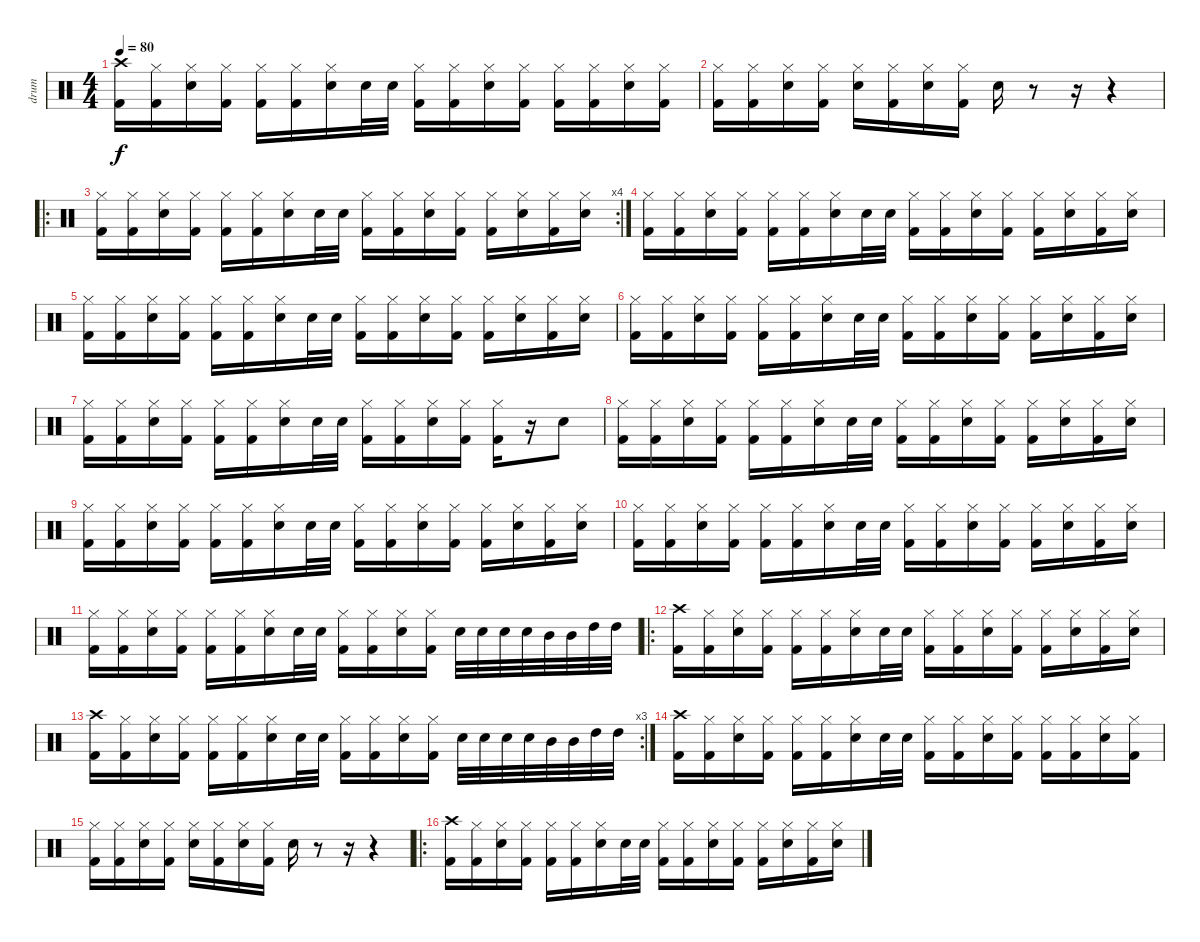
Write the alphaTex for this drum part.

\track ("drum" "drum") {instrument percussion}
\staff {score}
\articulation defaults
\ts (4 4)
\tempo 80
\clef neutral
\ks c
("Crash high (hit)" "Kick (hit) 2").16{dy f} ("Hi-Hat (closed)" "Kick (hit) 2").16 ("Hi-Hat (closed)" "Electric Snare (hit)").16 ("Hi-Hat (closed)" "Kick (hit) 2").16 ("Hi-Hat (closed)" "Kick (hit) 2").16 ("Hi-Hat (closed)" "Kick (hit) 2").16 ("Hi-Hat (closed)" "Electric Snare (hit)").16 "Electric Snare (hit)".32 "Electric Snare (hit)".32 ("Hi-Hat (closed)" "Kick (hit) 2").16 ("Hi-Hat (closed)" "Kick (hit) 2").16 ("Hi-Hat (closed)" "Electric Snare (hit)").16 ("Hi-Hat (closed)" "Kick (hit) 2").16 ("Hi-Hat (closed)" "Kick (hit) 2").16 ("Hi-Hat (closed)" "Kick (hit) 2").16 ("Hi-Hat (closed)" "Electric Snare (hit)").16 ("Hi-Hat (closed)" "Kick (hit) 2").16 |
("Hi-Hat (closed)" "Kick (hit) 2").16 ("Hi-Hat (closed)" "Kick (hit) 2").16 ("Hi-Hat (closed)" "Electric Snare (hit)").16 ("Hi-Hat (closed)" "Kick (hit) 2").16 ("Hi-Hat (closed)" "Electric Snare (hit)").16 ("Hi-Hat (closed)" "Kick (hit) 2").16 ("Hi-Hat (closed)" "Electric Snare (hit)").16 ("Hi-Hat (closed)" "Kick (hit) 2").16 "Electric Snare (hit)".16 r.8 r.16 r.4 |
\ro
\rc 4
("Hi-Hat (closed)" "Kick (hit) 2").16 ("Hi-Hat (closed)" "Kick (hit) 2").16 ("Hi-Hat (closed)" "Electric Snare (hit)").16 ("Hi-Hat (closed)" "Kick (hit) 2").16 ("Hi-Hat (closed)" "Kick (hit) 2").16 ("Hi-Hat (closed)" "Kick (hit) 2").16 ("Hi-Hat (closed)" "Electric Snare (hit)").16 "Electric Snare (hit)".32 "Electric Snare (hit)".32 ("Hi-Hat (closed)" "Kick (hit) 2").16 ("Hi-Hat (closed)" "Kick (hit) 2").16 ("Hi-Hat (closed)" "Electric Snare (hit)").16 ("Hi-Hat (closed)" "Kick (hit) 2").16 ("Hi-Hat (closed)" "Kick (hit) 2").16 ("Hi-Hat (closed)" "Electric Snare (hit)").16 ("Hi-Hat (closed)" "Kick (hit) 2").16 ("Hi-Hat (closed)" "Electric Snare (hit)").16 |
("Hi-Hat (closed)" "Kick (hit) 2").16 ("Hi-Hat (closed)" "Kick (hit) 2").16 ("Hi-Hat (closed)" "Electric Snare (hit)").16 ("Hi-Hat (closed)" "Kick (hit) 2").16 ("Hi-Hat (closed)" "Kick (hit) 2").16 ("Hi-Hat (closed)" "Kick (hit) 2").16 ("Hi-Hat (closed)" "Electric Snare (hit)").16 "Electric Snare (hit)".32 "Electric Snare (hit)".32 ("Hi-Hat (closed)" "Kick (hit) 2").16 ("Hi-Hat (closed)" "Kick (hit) 2").16 ("Hi-Hat (closed)" "Electric Snare (hit)").16 ("Hi-Hat (closed)" "Kick (hit) 2").16 ("Hi-Hat (closed)" "Kick (hit) 2").16 ("Hi-Hat (closed)" "Electric Snare (hit)").16 ("Hi-Hat (closed)" "Kick (hit) 2").16 ("Hi-Hat (closed)" "Electric Snare (hit)").16 |
("Hi-Hat (closed)" "Kick (hit) 2").16 ("Hi-Hat (closed)" "Kick (hit) 2").16 ("Hi-Hat (closed)" "Electric Snare (hit)").16 ("Hi-Hat (closed)" "Kick (hit) 2").16 ("Hi-Hat (closed)" "Kick (hit) 2").16 ("Hi-Hat (closed)" "Kick (hit) 2").16 ("Hi-Hat (closed)" "Electric Snare (hit)").16 "Electric Snare (hit)".32 "Electric Snare (hit)".32 ("Hi-Hat (closed)" "Kick (hit) 2").16 ("Hi-Hat (closed)" "Kick (hit) 2").16 ("Hi-Hat (closed)" "Electric Snare (hit)").16 ("Hi-Hat (closed)" "Kick (hit) 2").16 ("Hi-Hat (closed)" "Kick (hit) 2").16 ("Hi-Hat (closed)" "Electric Snare (hit)").16 ("Hi-Hat (closed)" "Kick (hit) 2").16 ("Hi-Hat (closed)" "Electric Snare (hit)").16 |
("Hi-Hat (closed)" "Kick (hit) 2").16 ("Hi-Hat (closed)" "Kick (hit) 2").16 ("Hi-Hat (closed)" "Electric Snare (hit)").16 ("Hi-Hat (closed)" "Kick (hit) 2").16 ("Hi-Hat (closed)" "Kick (hit) 2").16 ("Hi-Hat (closed)" "Kick (hit) 2").16 ("Hi-Hat (closed)" "Electric Snare (hit)").16 "Electric Snare (hit)".32 "Electric Snare (hit)".32 ("Hi-Hat (closed)" "Kick (hit) 2").16 ("Hi-Hat (closed)" "Kick (hit) 2").16 ("Hi-Hat (closed)" "Electric Snare (hit)").16 ("Hi-Hat (closed)" "Kick (hit) 2").16 ("Hi-Hat (closed)" "Kick (hit) 2").16 ("Hi-Hat (closed)" "Electric Snare (hit)").16 ("Hi-Hat (closed)" "Kick (hit) 2").16 ("Hi-Hat (closed)" "Electric Snare (hit)").16 |
("Hi-Hat (closed)" "Kick (hit) 2").16 ("Hi-Hat (closed)" "Kick (hit) 2").16 ("Hi-Hat (closed)" "Electric Snare (hit)").16 ("Hi-Hat (closed)" "Kick (hit) 2").16 ("Hi-Hat (closed)" "Kick (hit) 2").16 ("Hi-Hat (closed)" "Kick (hit) 2").16 ("Hi-Hat (closed)" "Electric Snare (hit)").16 "Electric Snare (hit)".32 "Electric Snare (hit)".32 ("Hi-Hat (closed)" "Kick (hit) 2").16 ("Hi-Hat (closed)" "Kick (hit) 2").16 ("Hi-Hat (closed)" "Electric Snare (hit)").16 ("Hi-Hat (closed)" "Kick (hit) 2").16 ("Hi-Hat (closed)" "Kick (hit) 2").16 r.16 "Electric Snare (hit)".8 |
("Hi-Hat (closed)" "Kick (hit) 2").16 ("Hi-Hat (closed)" "Kick (hit) 2").16 ("Hi-Hat (closed)" "Electric Snare (hit)").16 ("Hi-Hat (closed)" "Kick (hit) 2").16 ("Hi-Hat (closed)" "Kick (hit) 2").16 ("Hi-Hat (closed)" "Kick (hit) 2").16 ("Hi-Hat (closed)" "Electric Snare (hit)").16 "Electric Snare (hit)".32 "Electric Snare (hit)".32 ("Hi-Hat (closed)" "Kick (hit) 2").16 ("Hi-Hat (closed)" "Kick (hit) 2").16 ("Hi-Hat (closed)" "Electric Snare (hit)").16 ("Hi-Hat (closed)" "Kick (hit) 2").16 ("Hi-Hat (closed)" "Kick (hit) 2").16 ("Hi-Hat (closed)" "Electric Snare (hit)").16 ("Hi-Hat (closed)" "Kick (hit) 2").16 ("Hi-Hat (closed)" "Electric Snare (hit)").16 |
("Hi-Hat (closed)" "Kick (hit) 2").16 ("Hi-Hat (closed)" "Kick (hit) 2").16 ("Hi-Hat (closed)" "Electric Snare (hit)").16 ("Hi-Hat (closed)" "Kick (hit) 2").16 ("Hi-Hat (closed)" "Kick (hit) 2").16 ("Hi-Hat (closed)" "Kick (hit) 2").16 ("Hi-Hat (closed)" "Electric Snare (hit)").16 "Electric Snare (hit)".32 "Electric Snare (hit)".32 ("Hi-Hat (closed)" "Kick (hit) 2").16 ("Hi-Hat (closed)" "Kick (hit) 2").16 ("Hi-Hat (closed)" "Electric Snare (hit)").16 ("Hi-Hat (closed)" "Kick (hit) 2").16 ("Hi-Hat (closed)" "Kick (hit) 2").16 ("Hi-Hat (closed)" "Electric Snare (hit)").16 ("Hi-Hat (closed)" "Kick (hit) 2").16 ("Hi-Hat (closed)" "Electric Snare (hit)").16 |
("Hi-Hat (closed)" "Kick (hit) 2").16 ("Hi-Hat (closed)" "Kick (hit) 2").16 ("Hi-Hat (closed)" "Electric Snare (hit)").16 ("Hi-Hat (closed)" "Kick (hit) 2").16 ("Hi-Hat (closed)" "Kick (hit) 2").16 ("Hi-Hat (closed)" "Kick (hit) 2").16 ("Hi-Hat (closed)" "Electric Snare (hit)").16 "Electric Snare (hit)".32 "Electric Snare (hit)".32 ("Hi-Hat (closed)" "Kick (hit) 2").16 ("Hi-Hat (closed)" "Kick (hit) 2").16 ("Hi-Hat (closed)" "Electric Snare (hit)").16 ("Hi-Hat (closed)" "Kick (hit) 2").16 ("Hi-Hat (closed)" "Kick (hit) 2").16 ("Hi-Hat (closed)" "Electric Snare (hit)").16 ("Hi-Hat (closed)" "Kick (hit) 2").16 ("Hi-Hat (closed)" "Electric Snare (hit)").16 |
("Hi-Hat (closed)" "Kick (hit) 2").16 ("Hi-Hat (closed)" "Kick (hit) 2").16 ("Hi-Hat (closed)" "Electric Snare (hit)").16 ("Hi-Hat (closed)" "Kick (hit) 2").16 ("Hi-Hat (closed)" "Kick (hit) 2").16 ("Hi-Hat (closed)" "Kick (hit) 2").16 ("Hi-Hat (closed)" "Electric Snare (hit)").16 "Electric Snare (hit)".32 "Electric Snare (hit)".32 ("Hi-Hat (closed)" "Kick (hit) 2").16 ("Hi-Hat (closed)" "Kick (hit) 2").16 ("Hi-Hat (closed)" "Electric Snare (hit)").16 ("Hi-Hat (closed)" "Kick (hit) 2").16 "Electric Snare (hit)".32 "Electric Snare (hit)".32 "Electric Snare (hit)".32 "Electric Snare (hit)".32 "Mid Tom (hit)".32 "Mid Tom (hit)".32 "High Tom (hit)".32 "High Tom (hit)".32 |
\ro
("Crash high (hit)" "Kick (hit) 2").16 ("Hi-Hat (closed)" "Kick (hit) 2").16 ("Hi-Hat (closed)" "Electric Snare (hit)").16 ("Hi-Hat (closed)" "Kick (hit) 2").16 ("Hi-Hat (closed)" "Kick (hit) 2").16 ("Hi-Hat (closed)" "Kick (hit) 2").16 ("Hi-Hat (closed)" "Electric Snare (hit)").16 "Electric Snare (hit)".32 "Electric Snare (hit)".32 ("Hi-Hat (closed)" "Kick (hit) 2").16 ("Hi-Hat (closed)" "Kick (hit) 2").16 ("Hi-Hat (closed)" "Electric Snare (hit)").16 ("Hi-Hat (closed)" "Kick (hit) 2").16 ("Hi-Hat (closed)" "Kick (hit) 2").16 ("Hi-Hat (closed)" "Electric Snare (hit)").16 ("Hi-Hat (closed)" "Kick (hit) 2").16 ("Hi-Hat (closed)" "Electric Snare (hit)").16 |
\rc 3
("Crash high (hit)" "Kick (hit) 2").16 ("Hi-Hat (closed)" "Kick (hit) 2").16 ("Hi-Hat (closed)" "Electric Snare (hit)").16 ("Hi-Hat (closed)" "Kick (hit) 2").16 ("Hi-Hat (closed)" "Kick (hit) 2").16 ("Hi-Hat (closed)" "Kick (hit) 2").16 ("Hi-Hat (closed)" "Electric Snare (hit)").16 "Electric Snare (hit)".32 "Electric Snare (hit)".32 ("Hi-Hat (closed)" "Kick (hit) 2").16 ("Hi-Hat (closed)" "Kick (hit) 2").16 ("Hi-Hat (closed)" "Electric Snare (hit)").16 ("Hi-Hat (closed)" "Kick (hit) 2").16 "Electric Snare (hit)".32 "Electric Snare (hit)".32 "Electric Snare (hit)".32 "Electric Snare (hit)".32 "Mid Tom (hit)".32 "Mid Tom (hit)".32 "High Tom (hit)".32 "High Tom (hit)".32 |
("Crash high (hit)" "Kick (hit) 2").16 ("Hi-Hat (closed)" "Kick (hit) 2").16 ("Hi-Hat (closed)" "Electric Snare (hit)").16 ("Hi-Hat (closed)" "Kick (hit) 2").16 ("Hi-Hat (closed)" "Kick (hit) 2").16 ("Hi-Hat (closed)" "Kick (hit) 2").16 ("Hi-Hat (closed)" "Electric Snare (hit)").16 "Electric Snare (hit)".32 "Electric Snare (hit)".32 ("Hi-Hat (closed)" "Kick (hit) 2").16 ("Hi-Hat (closed)" "Kick (hit) 2").16 ("Hi-Hat (closed)" "Electric Snare (hit)").16 ("Hi-Hat (closed)" "Kick (hit) 2").16 ("Hi-Hat (closed)" "Kick (hit) 2").16 ("Hi-Hat (closed)" "Kick (hit) 2").16 ("Hi-Hat (closed)" "Electric Snare (hit)").16 ("Hi-Hat (closed)" "Kick (hit) 2").16 |
("Hi-Hat (closed)" "Kick (hit) 2").16 ("Hi-Hat (closed)" "Kick (hit) 2").16 ("Hi-Hat (closed)" "Electric Snare (hit)").16 ("Hi-Hat (closed)" "Kick (hit) 2").16 ("Hi-Hat (closed)" "Electric Snare (hit)").16 ("Hi-Hat (closed)" "Kick (hit) 2").16 ("Hi-Hat (closed)" "Electric Snare (hit)").16 ("Hi-Hat (closed)" "Kick (hit) 2").16 "Electric Snare (hit)".16 r.8 r.16 r.4 |
\ro
("Crash high (hit)" "Kick (hit) 2").16 ("Hi-Hat (closed)" "Kick (hit) 2").16 ("Hi-Hat (closed)" "Electric Snare (hit)").16 ("Hi-Hat (closed)" "Kick (hit) 2").16 ("Hi-Hat (closed)" "Kick (hit) 2").16 ("Hi-Hat (closed)" "Kick (hit) 2").16 ("Hi-Hat (closed)" "Electric Snare (hit)").16 "Electric Snare (hit)".32 "Electric Snare (hit)".32 ("Hi-Hat (closed)" "Kick (hit) 2").16 ("Hi-Hat (closed)" "Kick (hit) 2").16 ("Hi-Hat (closed)" "Electric Snare (hit)").16 ("Hi-Hat (closed)" "Kick (hit) 2").16 ("Hi-Hat (closed)" "Kick (hit) 2").16 ("Hi-Hat (closed)" "Electric Snare (hit)").16 ("Hi-Hat (closed)" "Kick (hit) 2").16 ("Hi-Hat (closed)" "Electric Snare (hit)").16
